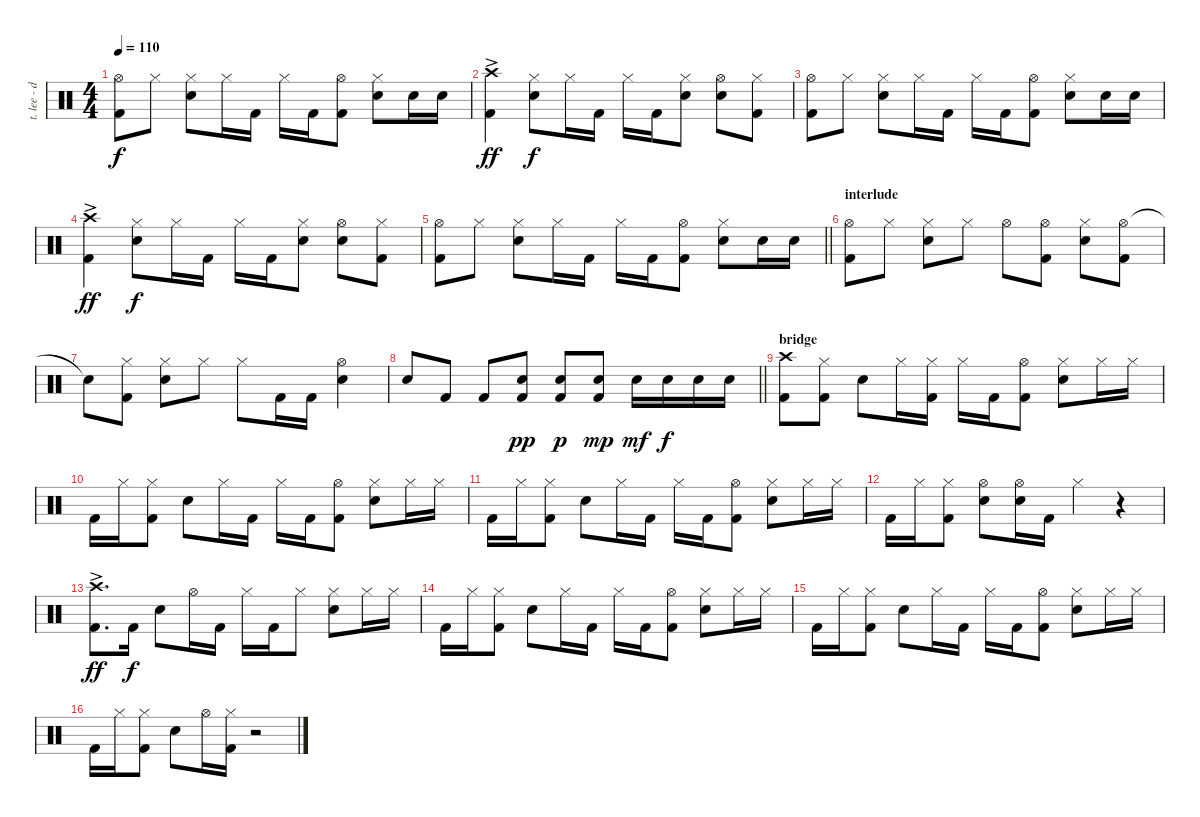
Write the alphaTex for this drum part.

\track ("t. lee - drums" "t. lee - d") {instrument percussion}
\staff {score}
\articulation defaults
\ts (4 4)
\tempo 110
\clef neutral
\ks c
("Hi-Hat (open)" "Kick (hit) 2").8{dy f} "Hi-Hat (closed)".8 ("Hi-Hat (closed)" "Snare (hit) 2").8 "Hi-Hat (closed)".16 "Kick (hit) 2".16 "Hi-Hat (closed)".16 "Kick (hit) 2".16 ("Hi-Hat (open)" "Kick (hit) 2").8 ("Hi-Hat (closed)" "Snare (hit) 2").8 "Snare (hit) 2".16 "Snare (hit) 2".16 |
("Crash high (hit)"{ac} "Kick (hit) 2"{ac}).4{dy ff} ("Hi-Hat (closed)" "Snare (hit) 2").8{dy f} "Hi-Hat (closed)".16 "Kick (hit) 2".16 "Hi-Hat (closed)".16 "Kick (hit) 2".16 ("Hi-Hat (closed)" "Snare (hit) 2").8 ("Hi-Hat (open)" "Snare (hit) 2").8 ("Hi-Hat (closed)" "Kick (hit) 2").8 |
("Hi-Hat (open)" "Kick (hit) 2").8 "Hi-Hat (closed)".8 ("Hi-Hat (closed)" "Snare (hit) 2").8 "Hi-Hat (closed)".16 "Kick (hit) 2".16 "Hi-Hat (closed)".16 "Kick (hit) 2".16 ("Hi-Hat (open)" "Kick (hit) 2").8 ("Hi-Hat (closed)" "Snare (hit) 2").8 "Snare (hit) 2".16 "Snare (hit) 2".16 |
("Crash high (hit)"{ac} "Kick (hit) 2"{ac}).4{dy ff} ("Hi-Hat (closed)" "Snare (hit) 2").8{dy f} "Hi-Hat (closed)".16 "Kick (hit) 2".16 "Hi-Hat (closed)".16 "Kick (hit) 2".16 ("Hi-Hat (closed)" "Snare (hit) 2").8 ("Hi-Hat (open)" "Snare (hit) 2").8 ("Hi-Hat (closed)" "Kick (hit) 2").8 |
\barLineRight lightlight
("Hi-Hat (open)" "Kick (hit) 2").8 "Hi-Hat (closed)".8 ("Hi-Hat (closed)" "Snare (hit) 2").8 "Hi-Hat (closed)".16 "Kick (hit) 2".16 "Hi-Hat (closed)".16 "Kick (hit) 2".16 ("Hi-Hat (open)" "Kick (hit) 2").8 ("Hi-Hat (closed)" "Snare (hit) 2").8 "Snare (hit) 2".16 "Snare (hit) 2".16 |
\section ("" "interlude")
("Hi-Hat (open)" "Kick (hit) 2").8 "Hi-Hat (closed)".8 ("Hi-Hat (closed)" "Snare (hit) 2").8 "Hi-Hat (closed)".8 "Hi-Hat (open)".8 ("Hi-Hat (open)" "Kick (hit) 2").8 ("Hi-Hat (closed)" "Snare (hit) 2").8 ("Hi-Hat (open)" "Kick (hit) 2").8 |
"Snare (hit)"{t}.8 ("Hi-Hat (closed)" "Kick (hit) 2").8 ("Hi-Hat (closed)" "Snare (hit) 2").8 "Hi-Hat (closed)".8 "Hi-Hat (closed)".8 "Kick (hit) 2".16 "Kick (hit) 2".16 ("Hi-Hat (open)" "Snare (hit) 2").4 |
\barLineRight lightlight "Snare (hit) 2".8 "Kick (hit) 2".8 "Kick (hit) 2".8
("Snare (hit) 2" "Kick (hit) 2").8{dy pp} ("Snare (hit) 2" "Kick (hit) 2").8{dy p} ("Snare (hit) 2" "Kick (hit) 2").8{dy mp} "Snare (hit) 2".16{dy mf} "Snare (hit) 2".16{dy f} "Snare (hit) 2".16 "Snare (hit) 2".16 |
\section ("" "bridge")
("Crash high (hit)" "Kick (hit) 2").8 ("Hi-Hat (closed)" "Kick (hit) 2").8 "Snare (hit) 2".8 "Hi-Hat (closed)".16 ("Hi-Hat (closed)" "Kick (hit) 2").16 "Hi-Hat (closed)".16 "Kick (hit) 2".16 ("Hi-Hat (open)" "Kick (hit) 2").8 ("Hi-Hat (closed)" "Snare (hit) 2").8 "Hi-Hat (closed)".16 "Hi-Hat (closed)".16 |
"Kick (hit) 2".16 "Hi-Hat (closed)".16 ("Hi-Hat (closed)" "Kick (hit) 2").8 "Snare (hit) 2".8 "Hi-Hat (closed)".16 "Kick (hit) 2".16 "Hi-Hat (closed)".16 "Kick (hit) 2".16 ("Hi-Hat (open)" "Kick (hit) 2").8 ("Hi-Hat (closed)" "Snare (hit) 2").8 "Hi-Hat (closed)".16 "Hi-Hat (closed)".16 |
"Kick (hit) 2".16 "Hi-Hat (closed)".16 ("Hi-Hat (closed)" "Kick (hit) 2").8 "Snare (hit) 2".8 "Hi-Hat (closed)".16 "Kick (hit) 2".16 "Hi-Hat (closed)".16 "Kick (hit) 2".16 ("Hi-Hat (open)" "Kick (hit) 2").8 ("Hi-Hat (closed)" "Snare (hit) 2").8 "Hi-Hat (closed)".16 "Hi-Hat (closed)".16 |
"Kick (hit) 2".16 "Hi-Hat (closed)".16 ("Hi-Hat (closed)" "Kick (hit) 2").8 ("Hi-Hat (open)" "Snare (hit) 2").8 ("Hi-Hat (open)" "Snare (hit) 2").16 "Kick (hit) 2".16 "Hi-Hat (closed)".4 r.4 |
("Crash high (hit)"{ac} "Kick (hit) 2"{ac}).8{d dy ff} "Kick (hit) 2".16{dy f} "Snare (hit) 2".8 "Hi-Hat (open)".16 "Kick (hit) 2".16 "Hi-Hat (closed)".16 "Kick (hit) 2".16 "Hi-Hat (closed)".8 ("Hi-Hat (closed)" "Snare (hit) 2").8 "Hi-Hat (closed)".16 "Hi-Hat (closed)".16 |
"Kick (hit) 2".16 "Hi-Hat (closed)".16 ("Hi-Hat (closed)" "Kick (hit) 2").8 "Snare (hit) 2".8 "Hi-Hat (closed)".16 "Kick (hit) 2".16 "Hi-Hat (closed)".16 "Kick (hit) 2".16 ("Hi-Hat (open)" "Kick (hit) 2").8 ("Hi-Hat (closed)" "Snare (hit) 2").8 "Hi-Hat (closed)".16 "Hi-Hat (closed)".16 |
"Kick (hit) 2".16 "Hi-Hat (closed)".16 ("Hi-Hat (closed)" "Kick (hit) 2").8 "Snare (hit) 2".8 "Hi-Hat (closed)".16 "Kick (hit) 2".16 "Hi-Hat (closed)".16 "Kick (hit) 2".16 ("Hi-Hat (open)" "Kick (hit) 2").8 ("Hi-Hat (closed)" "Snare (hit) 2").8 "Hi-Hat (closed)".16 "Hi-Hat (closed)".16 |
"Kick (hit) 2".16 "Hi-Hat (closed)".16 ("Hi-Hat (closed)" "Kick (hit) 2").8 "Snare (hit) 2".8 "Hi-Hat (open)".16 ("Hi-Hat (closed)" "Kick (hit) 2").16 r.2
